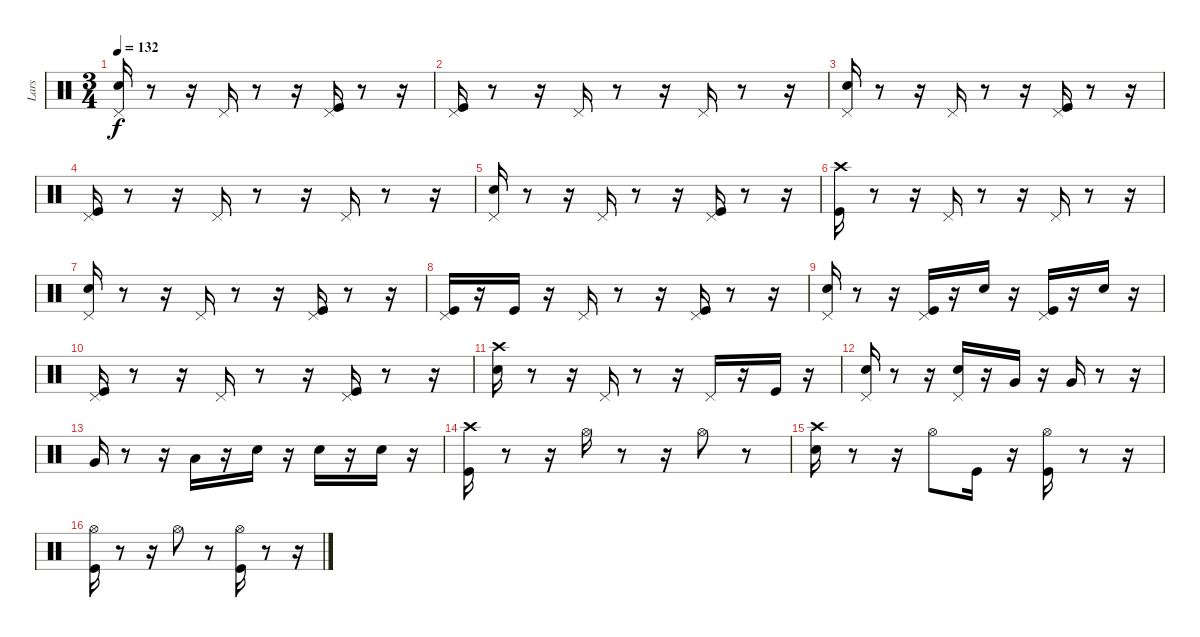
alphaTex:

\track ("Lars" "Lars") {instrument percussion}
\staff {score}
\articulation defaults
\ts (3 4)
\tempo 132
\clef neutral
\ks c
("Pedal Hi-Hat (hit)" "Snare (hit) 2").16{dy f} r.8 r.16 "Pedal Hi-Hat (hit)".16 r.8 r.16 ("Pedal Hi-Hat (hit)" "Kick (hit)").16 r.8 r.16 |
("Pedal Hi-Hat (hit)" "Kick (hit)").16 r.8 r.16 "Pedal Hi-Hat (hit)".16 r.8 r.16 "Pedal Hi-Hat (hit)".16 r.8 r.16 |
("Pedal Hi-Hat (hit)" "Snare (hit) 2").16 r.8 r.16 "Pedal Hi-Hat (hit)".16 r.8 r.16 ("Pedal Hi-Hat (hit)" "Kick (hit)").16 r.8 r.16 |
("Pedal Hi-Hat (hit)" "Kick (hit)").16 r.8 r.16 "Pedal Hi-Hat (hit)".16 r.8 r.16 "Pedal Hi-Hat (hit)".16 r.8 r.16 |
("Pedal Hi-Hat (hit)" "Snare (hit) 2").16 r.8 r.16 "Pedal Hi-Hat (hit)".16 r.8 r.16 ("Pedal Hi-Hat (hit)" "Kick (hit)").16 r.8 r.16 |
("Crash high (hit)" "Kick (hit)").16 r.8 r.16 "Pedal Hi-Hat (hit)".16 r.8 r.16 "Pedal Hi-Hat (hit)".16 r.8 r.16 |
("Pedal Hi-Hat (hit)" "Snare (hit) 2").16 r.8 r.16 "Pedal Hi-Hat (hit)".16 r.8 r.16 ("Pedal Hi-Hat (hit)" "Kick (hit)").16 r.8 r.16 |
("Pedal Hi-Hat (hit)" "Kick (hit)").16 r.16 "Kick (hit)".16 r.16 "Pedal Hi-Hat (hit)".16 r.8 r.16 ("Pedal Hi-Hat (hit)" "Kick (hit)").16 r.8 r.16 |
("Pedal Hi-Hat (hit)" "Snare (hit) 2").16 r.8 r.16 ("Pedal Hi-Hat (hit)" "Kick (hit)").16 r.16 "Snare (hit) 2".16 r.16 ("Pedal Hi-Hat (hit)" "Kick (hit)").16 r.16 "Snare (hit) 2".16 r.16 |
("Kick (hit)" "Pedal Hi-Hat (hit)").16 r.8 r.16 "Pedal Hi-Hat (hit)".16 r.8 r.16 ("Pedal Hi-Hat (hit)" "Kick (hit)").16 r.8 r.16 |
("Snare (hit) 2" "Crash high (hit)").16 r.8 r.16 "Pedal Hi-Hat (hit)".16 r.8 r.16 "Pedal Hi-Hat (hit)".16 r.16 "Kick (hit)".16 r.16 |
("Pedal Hi-Hat (hit)" "Snare (hit) 2").16 r.8 r.16 ("Pedal Hi-Hat (hit)" "Snare (hit) 2").16 r.16 "Very Low Tom (hit)".16 r.16 "Very Low Tom (hit)".16 r.8 r.16 |
"Very Low Tom (hit)".16 r.8 r.16 "Low Floor Tom (hit)".16 r.16 "Snare (hit) 2".16 r.16 "Snare (hit) 2".16 r.16 "Snare (hit) 2".16 r.16 |
("Kick (hit)" "Crash high (hit)").16 r.8 r.16 "Hi-Hat (open)".16 r.8 r.16 "Hi-Hat (open)".8 r.8 |
("Snare (hit) 2" "Crash high (hit)").16 r.8 r.16 "Hi-Hat (open)".8 "Kick (hit)".16 r.16 ("Hi-Hat (open)" "Kick (hit)").16 r.8 r.16 |
("Kick (hit)" "Hi-Hat (open)").16 r.8 r.16 "Hi-Hat (open)".8 r.8 ("Hi-Hat (open)" "Kick (hit)").16 r.8 r.16
